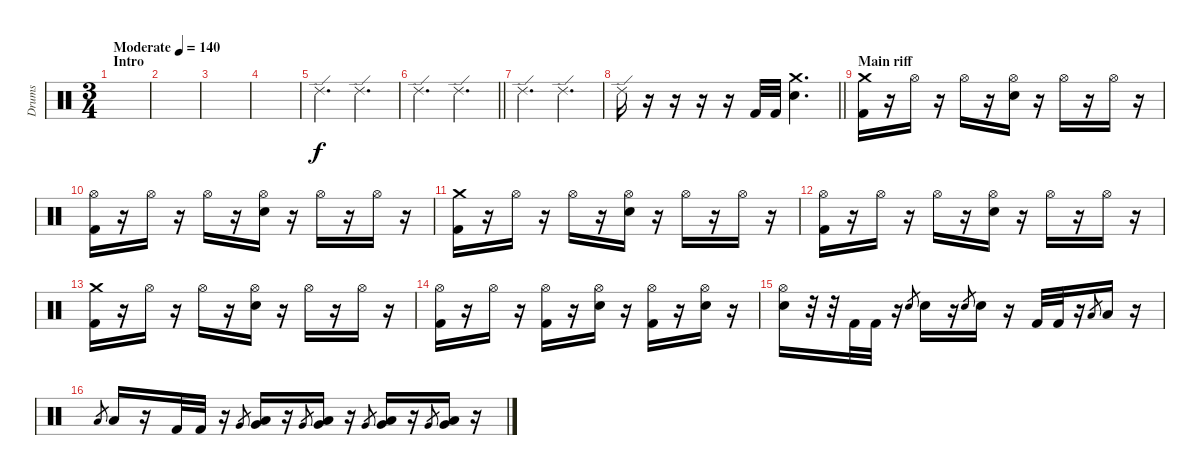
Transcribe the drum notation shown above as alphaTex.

\track ("Drums" "Drums") {instrument percussion}
\staff {score}
\articulation defaults
\ts (3 4)
\section ("" "Intro ")
\tempo (140 "Moderate")
\clef neutral
\ks c
|
|
|
|
"Ride (edge) 2".4{d} "Ride (edge) 2".4{d} |
\barLineRight lightlight "Ride (edge) 2".4{d} "Ride (edge) 2".4{d}
|
"Ride (edge) 2".4{d} "Ride (edge) 2".4{d} |
\barLineRight lightlight "Ride (edge) 2".16
r.16 r.16 r.16 r.16 "Kick (hit) 2".32 "Kick (hit) 2".32 ("Crash medium (hit)" "Electric Snare (hit)").4{d} |
\section ("" "Main riff")
("Crash medium (hit)" "Kick (hit) 2").16 r.16 "Hi-Hat (open)".16 r.16 "Hi-Hat (open)".16 r.16 ("Hi-Hat (open)" "Electric Snare (hit)").16 r.16 "Hi-Hat (open)".16 r.16 "Hi-Hat (open)".16 r.16 |
("Hi-Hat (open)" "Kick (hit) 2").16 r.16 "Hi-Hat (open)".16 r.16 "Hi-Hat (open)".16 r.16 ("Hi-Hat (open)" "Electric Snare (hit)").16 r.16 "Hi-Hat (open)".16 r.16 "Hi-Hat (open)".16 r.16 |
("Crash medium (hit)" "Kick (hit) 2").16 r.16 "Hi-Hat (open)".16 r.16 "Hi-Hat (open)".16 r.16 ("Hi-Hat (open)" "Electric Snare (hit)").16 r.16 "Hi-Hat (open)".16 r.16 "Hi-Hat (open)".16 r.16 |
("Hi-Hat (open)" "Kick (hit) 2").16 r.16 "Hi-Hat (open)".16 r.16 "Hi-Hat (open)".16 r.16 ("Hi-Hat (open)" "Electric Snare (hit)").16 r.16 "Hi-Hat (open)".16 r.16 "Hi-Hat (open)".16 r.16 |
("Crash medium (hit)" "Kick (hit) 2").16 r.16 "Hi-Hat (open)".16 r.16 "Hi-Hat (open)".16 r.16 ("Hi-Hat (open)" "Electric Snare (hit)").16 r.16 "Hi-Hat (open)".16 r.16 "Hi-Hat (open)".16 r.16 |
("Hi-Hat (open)" "Kick (hit) 2").16 r.16 "Hi-Hat (open)".16 r.16 ("Hi-Hat (open)" "Kick (hit) 2").16 r.16 ("Hi-Hat (open)" "Electric Snare (hit)").16 r.16 ("Hi-Hat (open)" "Kick (hit) 2").16 r.16 ("Hi-Hat (open)" "Electric Snare (hit)").16 r.16 |
("Hi-Hat (open)" "Electric Snare (hit)").16 r.32 r.32 "Kick (hit) 2".32 "Kick (hit) 2".32 r.16 "Electric Snare (hit)".8{gr} "Electric Snare (hit)".16 r.16 "Electric Snare (hit)".8{gr} "Electric Snare (hit)".16 r.16 "Kick (hit) 2".32 "Kick (hit) 2".32 r.16 "Low Tom (hit)".8{gr} "Low Tom (hit)".16 r.16 |
"Low Tom (hit)".8{gr} "Low Tom (hit)".16 r.16 "Kick (hit) 2".32 "Kick (hit) 2".32 r.16 "Very Low Tom (hit)".8{gr} ("Low Floor Tom (hit)" "Very Low Tom (hit)").16 r.16 "Very Low Tom (hit)".8{gr} ("Low Floor Tom (hit)" "Very Low Tom (hit)").16 r.16 "Very Low Tom (hit)".8{gr} ("Low Floor Tom (hit)" "Very Low Tom (hit)").16 r.16 "Very Low Tom (hit)".8{gr} ("Low Floor Tom (hit)" "Very Low Tom (hit)").16 r.16
